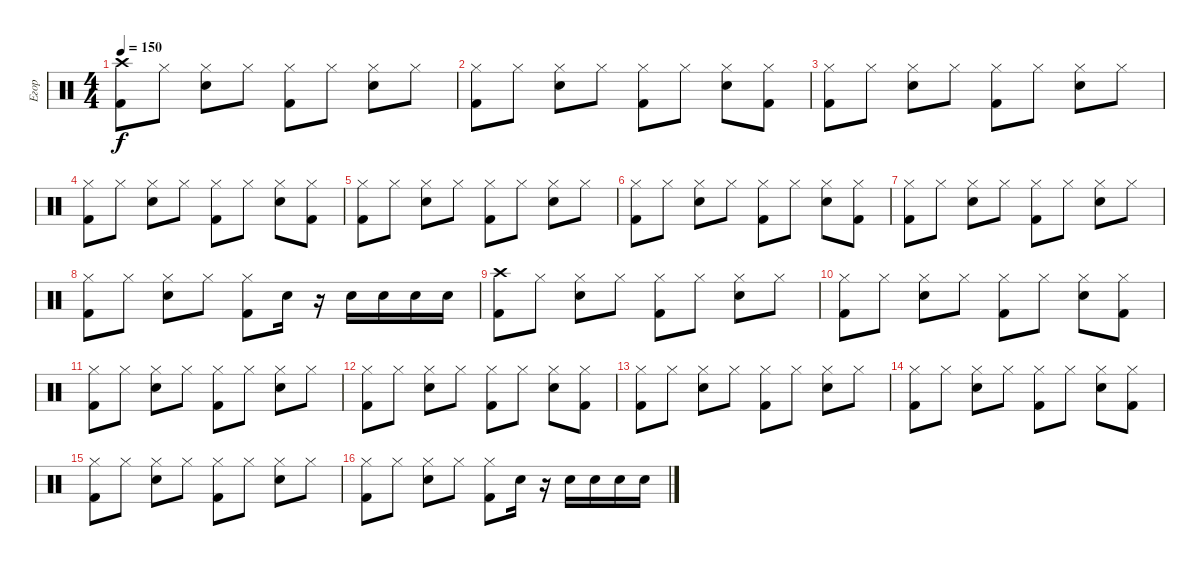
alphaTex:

\track ("Егор" "Егор") {instrument percussion}
\staff {score}
\articulation defaults
\ts (4 4)
\tempo 150
\clef neutral
\ks c
("Crash high (hit)" "Kick (hit) 2").8{dy f} "Hi-Hat (closed)".8 ("Hi-Hat (closed)" "Snare (hit) 2").8 "Hi-Hat (closed)".8 ("Hi-Hat (closed)" "Kick (hit) 2").8 "Hi-Hat (closed)".8 ("Hi-Hat (closed)" "Snare (hit) 2").8 "Hi-Hat (closed)".8 |
("Hi-Hat (closed)" "Kick (hit) 2").8 "Hi-Hat (closed)".8 ("Hi-Hat (closed)" "Snare (hit) 2").8 "Hi-Hat (closed)".8 ("Hi-Hat (closed)" "Kick (hit) 2").8 "Hi-Hat (closed)".8 ("Hi-Hat (closed)" "Snare (hit) 2").8 ("Hi-Hat (closed)" "Kick (hit) 2").8 |
("Hi-Hat (closed)" "Kick (hit) 2").8 "Hi-Hat (closed)".8 ("Hi-Hat (closed)" "Snare (hit) 2").8 "Hi-Hat (closed)".8 ("Hi-Hat (closed)" "Kick (hit) 2").8 "Hi-Hat (closed)".8 ("Hi-Hat (closed)" "Snare (hit) 2").8 "Hi-Hat (closed)".8 |
("Hi-Hat (closed)" "Kick (hit) 2").8 "Hi-Hat (closed)".8 ("Hi-Hat (closed)" "Snare (hit) 2").8 "Hi-Hat (closed)".8 ("Hi-Hat (closed)" "Kick (hit) 2").8 "Hi-Hat (closed)".8 ("Hi-Hat (closed)" "Snare (hit) 2").8 ("Hi-Hat (closed)" "Kick (hit) 2").8 |
("Hi-Hat (closed)" "Kick (hit) 2").8 "Hi-Hat (closed)".8 ("Hi-Hat (closed)" "Snare (hit) 2").8 "Hi-Hat (closed)".8 ("Hi-Hat (closed)" "Kick (hit) 2").8 "Hi-Hat (closed)".8 ("Hi-Hat (closed)" "Snare (hit) 2").8 "Hi-Hat (closed)".8 |
("Hi-Hat (closed)" "Kick (hit) 2").8 "Hi-Hat (closed)".8 ("Hi-Hat (closed)" "Snare (hit) 2").8 "Hi-Hat (closed)".8 ("Hi-Hat (closed)" "Kick (hit) 2").8 "Hi-Hat (closed)".8 ("Hi-Hat (closed)" "Snare (hit) 2").8 ("Hi-Hat (closed)" "Kick (hit) 2").8 |
("Hi-Hat (closed)" "Kick (hit) 2").8 "Hi-Hat (closed)".8 ("Hi-Hat (closed)" "Snare (hit) 2").8 "Hi-Hat (closed)".8 ("Hi-Hat (closed)" "Kick (hit) 2").8 "Hi-Hat (closed)".8 ("Hi-Hat (closed)" "Snare (hit) 2").8 "Hi-Hat (closed)".8 |
("Hi-Hat (closed)" "Kick (hit) 2").8 "Hi-Hat (closed)".8 ("Hi-Hat (closed)" "Snare (hit) 2").8 "Hi-Hat (closed)".8 ("Hi-Hat (closed)" "Kick (hit) 2").8 "Snare (hit) 2".16 r.16 "Snare (hit) 2".16 "Snare (hit) 2".16 "Snare (hit) 2".16 "Snare (hit) 2".16 |
("Crash high (hit)" "Kick (hit) 2").8 "Hi-Hat (closed)".8 ("Hi-Hat (closed)" "Snare (hit) 2").8 "Hi-Hat (closed)".8 ("Hi-Hat (closed)" "Kick (hit) 2").8 "Hi-Hat (closed)".8 ("Hi-Hat (closed)" "Snare (hit) 2").8 "Hi-Hat (closed)".8 |
("Hi-Hat (closed)" "Kick (hit) 2").8 "Hi-Hat (closed)".8 ("Hi-Hat (closed)" "Snare (hit) 2").8 "Hi-Hat (closed)".8 ("Hi-Hat (closed)" "Kick (hit) 2").8 "Hi-Hat (closed)".8 ("Hi-Hat (closed)" "Snare (hit) 2").8 ("Hi-Hat (closed)" "Kick (hit) 2").8 |
("Hi-Hat (closed)" "Kick (hit) 2").8 "Hi-Hat (closed)".8 ("Hi-Hat (closed)" "Snare (hit) 2").8 "Hi-Hat (closed)".8 ("Hi-Hat (closed)" "Kick (hit) 2").8 "Hi-Hat (closed)".8 ("Hi-Hat (closed)" "Snare (hit) 2").8 "Hi-Hat (closed)".8 |
("Hi-Hat (closed)" "Kick (hit) 2").8 "Hi-Hat (closed)".8 ("Hi-Hat (closed)" "Snare (hit) 2").8 "Hi-Hat (closed)".8 ("Hi-Hat (closed)" "Kick (hit) 2").8 "Hi-Hat (closed)".8 ("Hi-Hat (closed)" "Snare (hit) 2").8 ("Hi-Hat (closed)" "Kick (hit) 2").8 |
("Hi-Hat (closed)" "Kick (hit) 2").8 "Hi-Hat (closed)".8 ("Hi-Hat (closed)" "Snare (hit) 2").8 "Hi-Hat (closed)".8 ("Hi-Hat (closed)" "Kick (hit) 2").8 "Hi-Hat (closed)".8 ("Hi-Hat (closed)" "Snare (hit) 2").8 "Hi-Hat (closed)".8 |
("Hi-Hat (closed)" "Kick (hit) 2").8 "Hi-Hat (closed)".8 ("Hi-Hat (closed)" "Snare (hit) 2").8 "Hi-Hat (closed)".8 ("Hi-Hat (closed)" "Kick (hit) 2").8 "Hi-Hat (closed)".8 ("Hi-Hat (closed)" "Snare (hit) 2").8 ("Hi-Hat (closed)" "Kick (hit) 2").8 |
("Hi-Hat (closed)" "Kick (hit) 2").8 "Hi-Hat (closed)".8 ("Hi-Hat (closed)" "Snare (hit) 2").8 "Hi-Hat (closed)".8 ("Hi-Hat (closed)" "Kick (hit) 2").8 "Hi-Hat (closed)".8 ("Hi-Hat (closed)" "Snare (hit) 2").8 "Hi-Hat (closed)".8 |
("Hi-Hat (closed)" "Kick (hit) 2").8 "Hi-Hat (closed)".8 ("Hi-Hat (closed)" "Snare (hit) 2").8 "Hi-Hat (closed)".8 ("Hi-Hat (closed)" "Kick (hit) 2").8 "Snare (hit) 2".16 r.16 "Snare (hit) 2".16 "Snare (hit) 2".16 "Snare (hit) 2".16 "Snare (hit) 2".16
